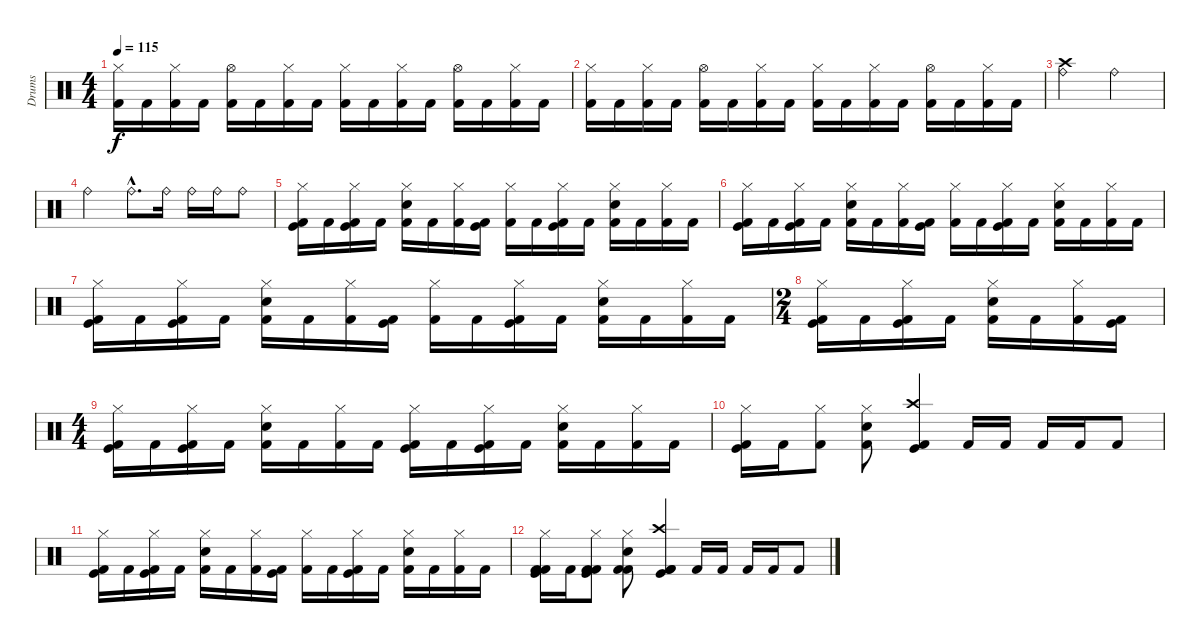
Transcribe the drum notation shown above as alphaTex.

\track ("Drums" "Drums") {instrument percussion}
\staff {score}
\articulation defaults
\ts (4 4)
\tempo 115
\clef neutral
\ks c
("Hi-Hat (closed)" "Kick (hit) 2").16{dy f} "Kick (hit) 2".16 ("Kick (hit) 2" "Hi-Hat (closed)").16 "Kick (hit) 2".16 ("Kick (hit) 2" "Hi-Hat (open)").16 "Kick (hit) 2".16 ("Kick (hit) 2" "Hi-Hat (closed)").16 "Kick (hit) 2".16 ("Kick (hit) 2" "Hi-Hat (closed)").16 "Kick (hit) 2".16 ("Kick (hit) 2" "Hi-Hat (closed)").16 "Kick (hit) 2".16 ("Kick (hit) 2" "Hi-Hat (open)").16 "Kick (hit) 2".16 ("Kick (hit) 2" "Hi-Hat (closed)").16 "Kick (hit) 2".16 |
("Hi-Hat (closed)" "Kick (hit) 2").16 "Kick (hit) 2".16 ("Kick (hit) 2" "Hi-Hat (closed)").16 "Kick (hit) 2".16 ("Kick (hit) 2" "Hi-Hat (open)").16 "Kick (hit) 2".16 ("Kick (hit) 2" "Hi-Hat (closed)").16 "Kick (hit) 2".16 ("Kick (hit) 2" "Hi-Hat (closed)").16 "Kick (hit) 2".16 ("Kick (hit) 2" "Hi-Hat (closed)").16 "Kick (hit) 2".16 ("Kick (hit) 2" "Hi-Hat (open)").16 "Kick (hit) 2".16 ("Kick (hit) 2" "Hi-Hat (closed)").16 "Kick (hit) 2".16 |
("Crash high (hit)" "Ride (bell)").2 "Ride (bell)".2 |
"Ride (bell)".2 "Ride (bell)"{hac}.8{d} "Ride (bell)".16 "Ride (bell)".16 "Ride (bell)".16 "Ride (bell)".8 |
("Kick (hit) 2" "Hi-Hat (closed)" "Kick (hit)").16 "Kick (hit) 2".16 ("Kick (hit) 2" "Hi-Hat (closed)" "Kick (hit)").16 "Kick (hit) 2".16 ("Kick (hit) 2" "Hi-Hat (closed)" "Snare (hit) 2").16 "Kick (hit) 2".16 ("Kick (hit) 2" "Hi-Hat (closed)").16 ("Kick (hit) 2" "Kick (hit)").16 ("Kick (hit) 2" "Hi-Hat (closed)").16 "Kick (hit) 2".16 ("Kick (hit) 2" "Hi-Hat (closed)" "Kick (hit)").16 "Kick (hit) 2".16 ("Kick (hit) 2" "Hi-Hat (closed)" "Snare (hit) 2").16 "Kick (hit) 2".16 ("Kick (hit) 2" "Hi-Hat (closed)").16 "Kick (hit) 2".16 |
("Kick (hit)" "Hi-Hat (closed)" "Kick (hit) 2").16 "Kick (hit) 2".16 ("Kick (hit) 2" "Hi-Hat (closed)" "Kick (hit)").16 "Kick (hit) 2".16 ("Kick (hit) 2" "Hi-Hat (closed)" "Snare (hit) 2").16 "Kick (hit) 2".16 ("Kick (hit) 2" "Hi-Hat (closed)").16 ("Kick (hit) 2" "Kick (hit)").16 ("Kick (hit) 2" "Hi-Hat (closed)").16 "Kick (hit) 2".16 ("Kick (hit) 2" "Hi-Hat (closed)" "Kick (hit)").16 "Kick (hit) 2".16 ("Kick (hit) 2" "Hi-Hat (closed)" "Snare (hit) 2").16 "Kick (hit) 2".16 ("Kick (hit) 2" "Hi-Hat (closed)").16 "Kick (hit) 2".16 |
("Kick (hit)" "Hi-Hat (closed)" "Kick (hit) 2").16 "Kick (hit) 2".16 ("Kick (hit) 2" "Hi-Hat (closed)" "Kick (hit)").16 "Kick (hit) 2".16 ("Kick (hit) 2" "Hi-Hat (closed)" "Snare (hit) 2").16 "Kick (hit) 2".16 ("Kick (hit) 2" "Hi-Hat (closed)").16 ("Kick (hit) 2" "Kick (hit)").16 ("Kick (hit) 2" "Hi-Hat (closed)").16 "Kick (hit) 2".16 ("Kick (hit) 2" "Hi-Hat (closed)" "Kick (hit)").16 "Kick (hit) 2".16 ("Kick (hit) 2" "Hi-Hat (closed)" "Snare (hit) 2").16 "Kick (hit) 2".16 ("Kick (hit) 2" "Hi-Hat (closed)").16 "Kick (hit) 2".16 |
\ts (2 4)
("Kick (hit) 2" "Hi-Hat (closed)" "Kick (hit)").16 "Kick (hit) 2".16 ("Kick (hit) 2" "Hi-Hat (closed)" "Kick (hit)").16 "Kick (hit) 2".16 ("Kick (hit) 2" "Hi-Hat (closed)" "Snare (hit) 2").16 "Kick (hit) 2".16 ("Kick (hit) 2" "Hi-Hat (closed)").16 ("Kick (hit) 2" "Kick (hit)").16 |
\ts (4 4)
("Kick (hit) 2" "Hi-Hat (closed)" "Kick (hit)").16 "Kick (hit) 2".16 ("Kick (hit) 2" "Hi-Hat (closed)" "Kick (hit)").16 "Kick (hit) 2".16 ("Kick (hit) 2" "Hi-Hat (closed)" "Snare (hit) 2").16 "Kick (hit) 2".16 ("Kick (hit) 2" "Hi-Hat (closed)").16 "Kick (hit) 2".16 ("Kick (hit) 2" "Hi-Hat (closed)" "Kick (hit)").16 "Kick (hit) 2".16 ("Kick (hit) 2" "Hi-Hat (closed)" "Kick (hit)").16 "Kick (hit) 2".16 ("Kick (hit) 2" "Hi-Hat (closed)" "Snare (hit) 2").16 "Kick (hit) 2".16 ("Kick (hit) 2" "Hi-Hat (closed)").16 "Kick (hit) 2".16 |
("Kick (hit) 2" "Hi-Hat (closed)" "Kick (hit)").16 "Kick (hit) 2".16 ("Kick (hit) 2" "Hi-Hat (closed)").8 ("Kick (hit) 2" "Hi-Hat (closed)" "Snare (hit) 2").8 ("Kick (hit) 2" "Crash high (hit)" "Kick (hit)").4 "Kick (hit) 2".16 "Kick (hit) 2".16 "Kick (hit) 2".16 "Kick (hit) 2".16 "Kick (hit) 2".8 |
("Kick (hit) 2" "Hi-Hat (closed)" "Kick (hit)").16 "Kick (hit) 2".16 ("Kick (hit) 2" "Hi-Hat (closed)" "Kick (hit)").16 "Kick (hit) 2".16 ("Kick (hit) 2" "Hi-Hat (closed)" "Snare (hit) 2").16 "Kick (hit) 2".16 ("Kick (hit) 2" "Hi-Hat (closed)").16 ("Kick (hit) 2" "Kick (hit)").16 ("Kick (hit) 2" "Hi-Hat (closed)").16 "Kick (hit) 2".16 ("Kick (hit) 2" "Hi-Hat (closed)" "Kick (hit)").16 "Kick (hit) 2".16 ("Kick (hit) 2" "Hi-Hat (closed)" "Snare (hit) 2").16 "Kick (hit) 2".16 ("Kick (hit) 2" "Hi-Hat (closed)").16 "Kick (hit) 2".16 |
("Kick (hit) 2" "Hi-Hat (closed)" "Kick (hit) 2" "Kick (hit)").16 "Kick (hit) 2".16 ("Kick (hit) 2" "Kick (hit) 2" "Hi-Hat (closed)" "Kick (hit)").8 ("Kick (hit) 2" "Kick (hit) 2" "Hi-Hat (closed)" "Snare (hit) 2").8 ("Kick (hit) 2" "Kick (hit) 2" "Crash high (hit)" "Kick (hit)").4 "Kick (hit) 2".16 "Kick (hit) 2".16 "Kick (hit) 2".16 "Kick (hit) 2".16 "Kick (hit) 2".8
